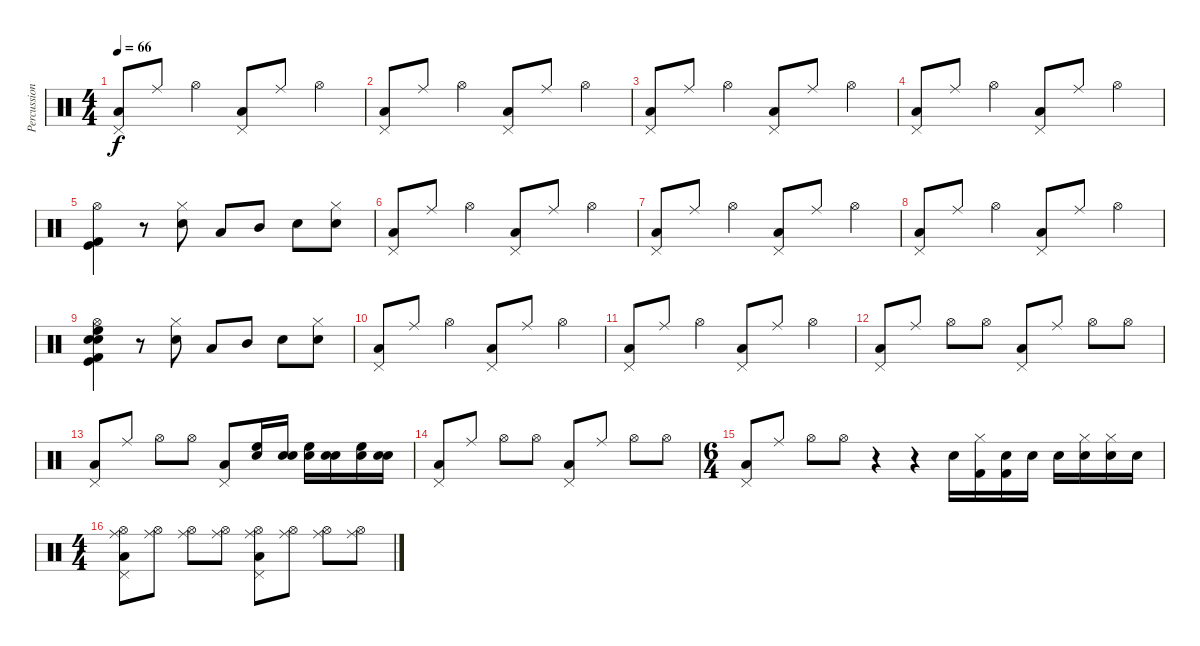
\track ("Percussions" "Percussion") {instrument percussion}
\staff {score}
\articulation defaults
\ts (4 4)
\tempo 66
\clef neutral
\ks c
("Pedal Hi-Hat (hit)" "Low Tom (hit)").8{dy f} "Ride (middle)".8 "Hi-Hat (open)".4 ("Pedal Hi-Hat (hit)" "Low Tom (hit)").8 "Ride (middle)".8 "Hi-Hat (open)".4 |
("Pedal Hi-Hat (hit)" "Low Tom (hit)").8 "Ride (middle)".8 "Hi-Hat (open)".4 ("Pedal Hi-Hat (hit)" "Low Tom (hit)").8 "Ride (middle)".8 "Hi-Hat (open)".4 |
("Pedal Hi-Hat (hit)" "Low Tom (hit)").8 "Ride (middle)".8 "Hi-Hat (open)".4 ("Pedal Hi-Hat (hit)" "Low Tom (hit)").8 "Ride (middle)".8 "Hi-Hat (open)".4 |
("Pedal Hi-Hat (hit)" "Low Tom (hit)").8 "Ride (middle)".8 "Hi-Hat (open)".4 ("Pedal Hi-Hat (hit)" "Low Tom (hit)").8 "Ride (middle)".8 "Hi-Hat (open)".4 |
("Kick (hit) 2" "Kick (hit)" "Hi-Hat (open)").4 r.8 ("Hi-Hat (closed)" "Electric Snare (hit)").8 "Low Tom (hit)".8 "Mid Tom (hit)".8 "Snare (hit) 2".8 ("Hi-Hat (closed)" "Electric Snare (hit)").8 |
("Pedal Hi-Hat (hit)" "Low Tom (hit)").8 "Ride (middle)".8 "Hi-Hat (open)".4 ("Pedal Hi-Hat (hit)" "Low Tom (hit)").8 "Ride (middle)".8 "Hi-Hat (open)".4 |
("Pedal Hi-Hat (hit)" "Low Tom (hit)").8 "Ride (middle)".8 "Hi-Hat (open)".4 ("Pedal Hi-Hat (hit)" "Low Tom (hit)").8 "Ride (middle)".8 "Hi-Hat (open)".4 |
("Pedal Hi-Hat (hit)" "Low Tom (hit)").8 "Ride (middle)".8 "Hi-Hat (open)".4 ("Pedal Hi-Hat (hit)" "Low Tom (hit)").8 "Ride (middle)".8 "Hi-Hat (open)".4 |
("Electric Snare (hit)" "Kick (hit) 2" "Snare (hit) 2" "High Floor Tom (hit)" "Kick (hit)" "Hi-Hat (open)").4 r.8 ("Hi-Hat (closed)" "Electric Snare (hit)").8 "Low Tom (hit)".8 "Mid Tom (hit)".8 "Snare (hit) 2".8 ("Hi-Hat (closed)" "Electric Snare (hit)").8 |
("Pedal Hi-Hat (hit)" "Low Tom (hit)").8 "Ride (middle)".8 "Hi-Hat (open)".4 ("Pedal Hi-Hat (hit)" "Low Tom (hit)").8 "Ride (middle)".8 "Hi-Hat (open)".4 |
("Pedal Hi-Hat (hit)" "Low Tom (hit)").8 "Ride (middle)".8 "Hi-Hat (open)".4 ("Pedal Hi-Hat (hit)" "Low Tom (hit)").8 "Ride (middle)".8 "Hi-Hat (open)".4 |
("Pedal Hi-Hat (hit)" "Low Tom (hit)").8 "Ride (middle)".8 "Hi-Hat (open)".8 "Hi-Hat (open)".8 ("Pedal Hi-Hat (hit)" "Low Tom (hit)").8 "Ride (middle)".8 "Hi-Hat (open)".8 "Hi-Hat (open)".8 |
("Pedal Hi-Hat (hit)" "Low Tom (hit)").8 "Ride (middle)".8 "Hi-Hat (open)".8 "Hi-Hat (open)".8 ("Pedal Hi-Hat (hit)" "Low Tom (hit)").8 ("High Floor Tom (hit)" "Snare (hit) 2").16 ("Electric Snare (hit)" "Snare (hit) 2").16 ("High Floor Tom (hit)" "Snare (hit) 2").16 ("Electric Snare (hit)" "Snare (hit) 2").16 ("High Floor Tom (hit)" "Snare (hit) 2").16 ("Electric Snare (hit)" "Snare (hit) 2").16 |
("Pedal Hi-Hat (hit)" "Low Tom (hit)").8 "Ride (middle)".8 "Hi-Hat (open)".8 "Hi-Hat (open)".8 ("Pedal Hi-Hat (hit)" "Low Tom (hit)").8 "Ride (middle)".8 "Hi-Hat (open)".8 "Hi-Hat (open)".8 |
\ts (6 4)
("Pedal Hi-Hat (hit)" "Low Tom (hit)").8 "Ride (middle)".8 "Hi-Hat (open)".8 "Hi-Hat (open)".8 r.4 r.4 "Snare (hit) 2".16 ("Hi-Hat (closed)" "Kick (hit) 2").16 ("Snare (hit) 2" "Kick (hit) 2").16 "Snare (hit) 2".16 "Snare (hit) 2".16 ("Hi-Hat (closed)" "Electric Snare (hit)").16 ("Hi-Hat (closed)" "Electric Snare (hit)").16 "Snare (hit) 2".16 |
\ts (4 4)
("Pedal Hi-Hat (hit)" "Low Tom (hit)" "Hi-Hat (open)" "Ride (middle)").8 ("Ride (middle)" "Hi-Hat (open)").8 ("Hi-Hat (open)" "Ride (middle)").8 ("Hi-Hat (open)" "Ride (middle)").8 ("Pedal Hi-Hat (hit)" "Low Tom (hit)" "Hi-Hat (open)" "Ride (middle)").8 ("Ride (middle)" "Hi-Hat (open)").8 ("Hi-Hat (open)" "Ride (middle)").8 ("Hi-Hat (open)" "Ride (middle)").8
